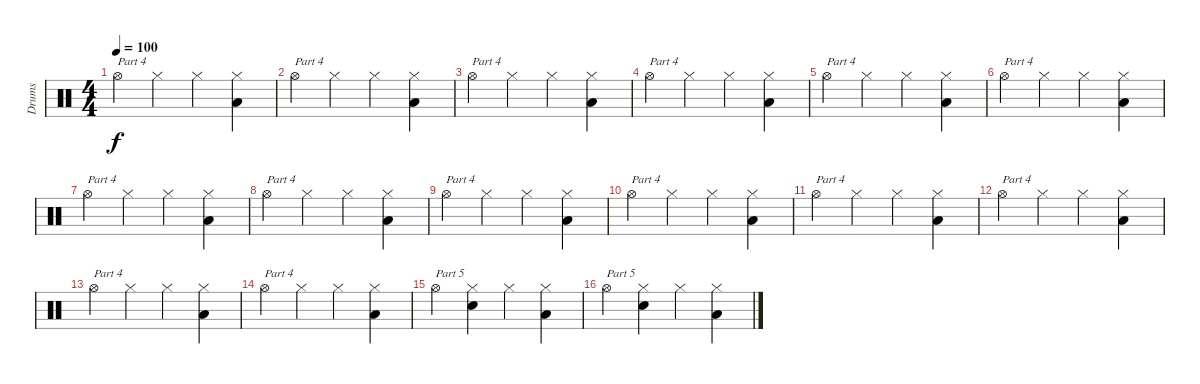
\track ("Drums" "Drums") {instrument percussion}
\staff {score}
\articulation defaults
\ts (4 4)
\tempo 100
\clef neutral
\ks c "Hi-Hat (open)".4{txt "Part 4" dy f} "Hi-Hat (closed)".4 "Hi-Hat (closed)".4
("Hi-Hat (closed)" "Low Floor Tom (hit)").4 |
"Hi-Hat (open)".4{txt "Part 4"} "Hi-Hat (closed)".4 "Hi-Hat (closed)".4 ("Hi-Hat (closed)" "Low Floor Tom (hit)").4 |
"Hi-Hat (open)".4{txt "Part 4"} "Hi-Hat (closed)".4 "Hi-Hat (closed)".4 ("Hi-Hat (closed)" "Low Floor Tom (hit)").4 |
"Hi-Hat (open)".4{txt "Part 4"} "Hi-Hat (closed)".4 "Hi-Hat (closed)".4 ("Hi-Hat (closed)" "Low Floor Tom (hit)").4 |
"Hi-Hat (open)".4{txt "Part 4"} "Hi-Hat (closed)".4 "Hi-Hat (closed)".4 ("Hi-Hat (closed)" "Low Floor Tom (hit)").4 |
"Hi-Hat (open)".4{txt "Part 4"} "Hi-Hat (closed)".4 "Hi-Hat (closed)".4 ("Hi-Hat (closed)" "Low Floor Tom (hit)").4 |
"Hi-Hat (open)".4{txt "Part 4"} "Hi-Hat (closed)".4 "Hi-Hat (closed)".4 ("Hi-Hat (closed)" "Low Floor Tom (hit)").4 |
"Hi-Hat (open)".4{txt "Part 4"} "Hi-Hat (closed)".4 "Hi-Hat (closed)".4 ("Hi-Hat (closed)" "Low Floor Tom (hit)").4 |
"Hi-Hat (open)".4{txt "Part 4"} "Hi-Hat (closed)".4 "Hi-Hat (closed)".4 ("Hi-Hat (closed)" "Low Floor Tom (hit)").4 |
"Hi-Hat (open)".4{txt "Part 4"} "Hi-Hat (closed)".4 "Hi-Hat (closed)".4 ("Hi-Hat (closed)" "Low Floor Tom (hit)").4 |
"Hi-Hat (open)".4{txt "Part 4"} "Hi-Hat (closed)".4 "Hi-Hat (closed)".4 ("Hi-Hat (closed)" "Low Floor Tom (hit)").4 |
"Hi-Hat (open)".4{txt "Part 4"} "Hi-Hat (closed)".4 "Hi-Hat (closed)".4 ("Hi-Hat (closed)" "Low Floor Tom (hit)").4 |
"Hi-Hat (open)".4{txt "Part 4"} "Hi-Hat (closed)".4 "Hi-Hat (closed)".4 ("Hi-Hat (closed)" "Low Floor Tom (hit)").4 |
"Hi-Hat (open)".4{txt "Part 4"} "Hi-Hat (closed)".4 "Hi-Hat (closed)".4 ("Hi-Hat (closed)" "Low Floor Tom (hit)").4 |
"Hi-Hat (open)".4{txt "Part 5"} ("Hi-Hat (closed)" "Snare (hit) 2").4 "Hi-Hat (closed)".4 ("Hi-Hat (closed)" "Low Floor Tom (hit)").4 |
"Hi-Hat (open)".4{txt "Part 5"} ("Hi-Hat (closed)" "Snare (hit) 2").4 "Hi-Hat (closed)".4 ("Hi-Hat (closed)" "Low Floor Tom (hit)").4
